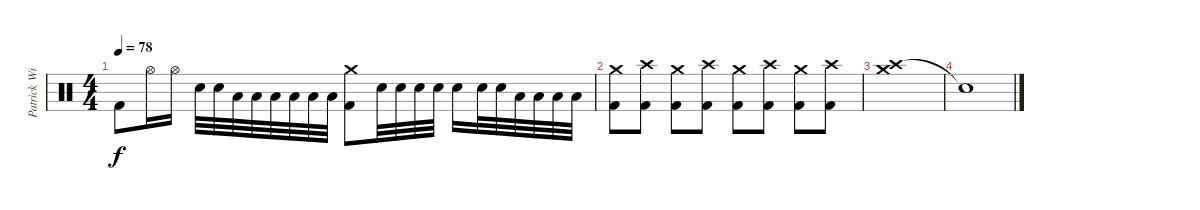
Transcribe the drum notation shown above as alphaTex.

\track ("Patrick Wilson" "Patrick Wi") {instrument percussion}
\staff {score}
\articulation defaults
\ts (4 4)
\tempo 78
\clef neutral
\ks c "Kick (hit) 2".8{dy f} "Hi-Hat (open)".16 "Hi-Hat (open)".16 "Snare (hit) 2".32 "Snare (hit) 2".32 "Low Floor Tom (hit)".32 "Low Floor Tom (hit)".32 "Low Floor Tom (hit)".32 "Low Floor Tom (hit)".32 "Low Floor Tom (hit)".32 "Low Floor Tom (hit)".32
("Crash medium (hit)" "Kick (hit) 2").8 "Snare (hit) 2".32 "Snare (hit) 2".32 "Snare (hit) 2".32 "Snare (hit) 2".32 "Snare (hit) 2".16 "Snare (hit) 2".32 "Snare (hit) 2".32 "Low Floor Tom (hit)".32 "Low Floor Tom (hit)".32 "Low Floor Tom (hit)".32 "Low Floor Tom (hit)".32 |
("Crash medium (hit)" "Kick (hit) 2").8 ("Crash high (hit)" "Kick (hit) 2").8 ("Crash medium (hit)" "Kick (hit) 2").8 ("Crash high (hit)" "Kick (hit) 2").8 ("Crash medium (hit)" "Kick (hit) 2").8 ("Crash high (hit)" "Kick (hit) 2").8 ("Crash medium (hit)" "Kick (hit) 2").8 ("Crash high (hit)" "Kick (hit) 2").8 |
("Crash high (hit)" "Crash medium (hit)").1 |
"Snare (hit)"{t}.1
